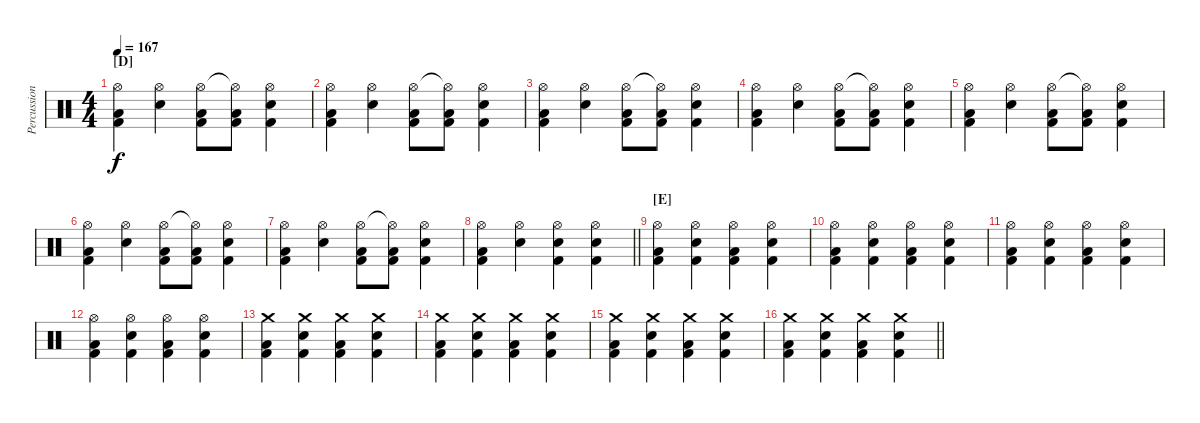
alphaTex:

\track ("Percussions" "Percussion") {instrument percussion}
\staff {score}
\articulation defaults
\ts (4 4)
\section ("" "[D]")
\tempo 167
\clef neutral
\ks c
("Hi-Hat (open)" "Low Floor Tom (hit)" "Kick (hit) 2").4{dy f} ("Hi-Hat (open)" "Electric Snare (hit)").4 ("Hi-Hat (open)" "Low Floor Tom (hit)" "Kick (hit) 2").8 ("Hi-Hat (open)"{t} "Low Floor Tom (hit)" "Kick (hit) 2").8 ("Hi-Hat (open)" "Electric Snare (hit)" "Kick (hit) 2").4 |
("Hi-Hat (open)" "Low Floor Tom (hit)" "Kick (hit) 2").4 ("Hi-Hat (open)" "Electric Snare (hit)").4 ("Hi-Hat (open)" "Low Floor Tom (hit)" "Kick (hit) 2").8 ("Hi-Hat (open)"{t} "Low Floor Tom (hit)" "Kick (hit) 2").8 ("Hi-Hat (open)" "Electric Snare (hit)" "Kick (hit) 2").4 |
("Hi-Hat (open)" "Low Floor Tom (hit)" "Kick (hit) 2").4 ("Hi-Hat (open)" "Electric Snare (hit)").4 ("Hi-Hat (open)" "Low Floor Tom (hit)" "Kick (hit) 2").8 ("Hi-Hat (open)"{t} "Low Floor Tom (hit)" "Kick (hit) 2").8 ("Hi-Hat (open)" "Electric Snare (hit)" "Kick (hit) 2").4 |
("Hi-Hat (open)" "Low Floor Tom (hit)" "Kick (hit) 2").4 ("Hi-Hat (open)" "Electric Snare (hit)").4 ("Hi-Hat (open)" "Low Floor Tom (hit)" "Kick (hit) 2").8 ("Hi-Hat (open)"{t} "Low Floor Tom (hit)" "Kick (hit) 2").8 ("Hi-Hat (open)" "Electric Snare (hit)" "Kick (hit) 2").4 |
("Hi-Hat (open)" "Low Floor Tom (hit)" "Kick (hit) 2").4 ("Hi-Hat (open)" "Electric Snare (hit)").4 ("Hi-Hat (open)" "Low Floor Tom (hit)" "Kick (hit) 2").8 ("Hi-Hat (open)"{t} "Low Floor Tom (hit)" "Kick (hit) 2").8 ("Hi-Hat (open)" "Electric Snare (hit)" "Kick (hit) 2").4 |
("Hi-Hat (open)" "Low Floor Tom (hit)" "Kick (hit) 2").4 ("Hi-Hat (open)" "Electric Snare (hit)").4 ("Hi-Hat (open)" "Low Floor Tom (hit)" "Kick (hit) 2").8 ("Hi-Hat (open)"{t} "Low Floor Tom (hit)" "Kick (hit) 2").8 ("Hi-Hat (open)" "Electric Snare (hit)" "Kick (hit) 2").4 |
("Hi-Hat (open)" "Low Floor Tom (hit)" "Kick (hit) 2").4 ("Hi-Hat (open)" "Electric Snare (hit)").4 ("Hi-Hat (open)" "Low Floor Tom (hit)" "Kick (hit) 2").8 ("Hi-Hat (open)"{t} "Low Floor Tom (hit)" "Kick (hit) 2").8 ("Hi-Hat (open)" "Electric Snare (hit)" "Kick (hit) 2").4 |
\barLineRight lightlight
("Hi-Hat (open)" "Low Floor Tom (hit)" "Kick (hit) 2").4 ("Hi-Hat (open)" "Electric Snare (hit)").4 ("Hi-Hat (open)" "Electric Snare (hit)" "Kick (hit) 2").4 ("Hi-Hat (open)" "Electric Snare (hit)" "Kick (hit) 2").4 |
\section ("" "[E]")
("Hi-Hat (open)" "Low Floor Tom (hit)" "Kick (hit) 2").4 ("Hi-Hat (open)" "Electric Snare (hit)" "Kick (hit) 2").4 ("Hi-Hat (open)" "Low Floor Tom (hit)" "Kick (hit) 2").4 ("Hi-Hat (open)" "Electric Snare (hit)" "Kick (hit) 2").4 |
("Hi-Hat (open)" "Low Floor Tom (hit)" "Kick (hit) 2").4 ("Hi-Hat (open)" "Electric Snare (hit)" "Kick (hit) 2").4 ("Hi-Hat (open)" "Low Floor Tom (hit)" "Kick (hit) 2").4 ("Hi-Hat (open)" "Electric Snare (hit)" "Kick (hit) 2").4 |
("Hi-Hat (open)" "Low Floor Tom (hit)" "Kick (hit) 2").4 ("Hi-Hat (open)" "Electric Snare (hit)" "Kick (hit) 2").4 ("Hi-Hat (open)" "Low Floor Tom (hit)" "Kick (hit) 2").4 ("Hi-Hat (open)" "Electric Snare (hit)" "Kick (hit) 2").4 |
("Hi-Hat (open)" "Low Floor Tom (hit)" "Kick (hit) 2").4 ("Hi-Hat (open)" "Electric Snare (hit)" "Kick (hit) 2").4 ("Hi-Hat (open)" "Low Floor Tom (hit)" "Kick (hit) 2").4 ("Hi-Hat (open)" "Electric Snare (hit)" "Kick (hit) 2").4 |
("Crash medium (hit)" "Low Floor Tom (hit)" "Kick (hit) 2").4 ("Crash medium (hit)" "Electric Snare (hit)" "Kick (hit) 2").4 ("Crash medium (hit)" "Low Floor Tom (hit)" "Kick (hit) 2").4 ("Crash medium (hit)" "Electric Snare (hit)" "Kick (hit) 2").4 |
("Crash medium (hit)" "Low Floor Tom (hit)" "Kick (hit) 2").4 ("Crash medium (hit)" "Electric Snare (hit)" "Kick (hit) 2").4 ("Crash medium (hit)" "Low Floor Tom (hit)" "Kick (hit) 2").4 ("Crash medium (hit)" "Electric Snare (hit)" "Kick (hit) 2").4 |
("Crash medium (hit)" "Low Floor Tom (hit)" "Kick (hit) 2").4 ("Crash medium (hit)" "Electric Snare (hit)" "Kick (hit) 2").4 ("Crash medium (hit)" "Low Floor Tom (hit)" "Kick (hit) 2").4 ("Crash medium (hit)" "Electric Snare (hit)" "Kick (hit) 2").4 |
\barLineRight lightlight
("Crash medium (hit)" "Low Floor Tom (hit)" "Kick (hit) 2").4 ("Crash medium (hit)" "Electric Snare (hit)" "Kick (hit) 2").4 ("Crash medium (hit)" "Low Floor Tom (hit)" "Kick (hit) 2").4 ("Crash medium (hit)" "Electric Snare (hit)" "Kick (hit) 2").4
